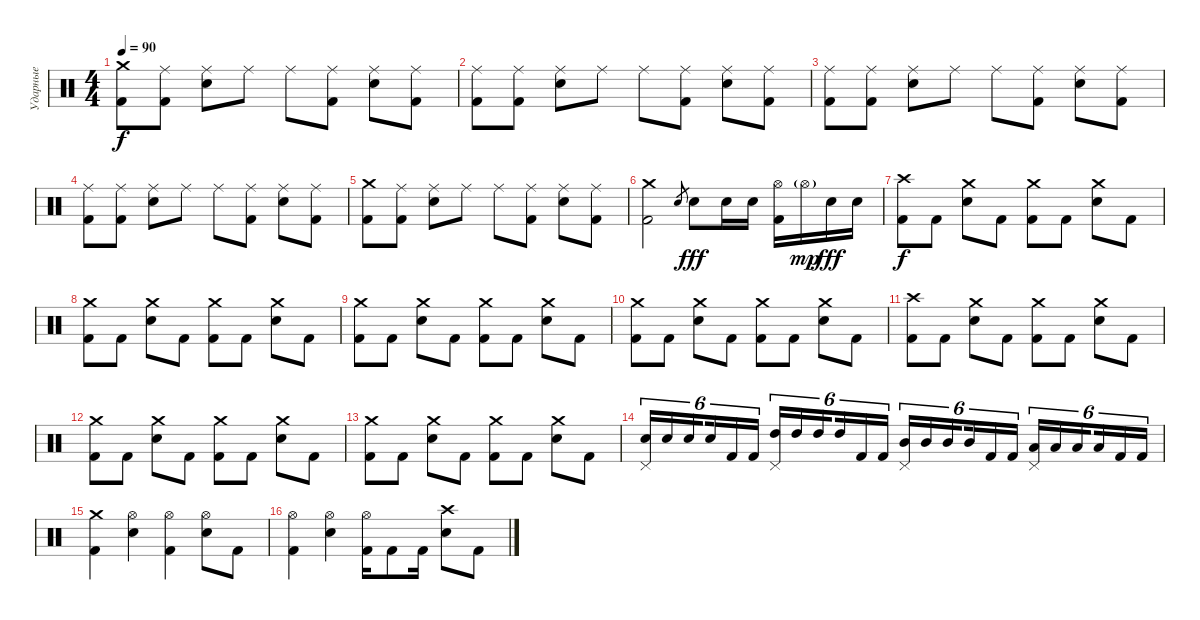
\track ("Ударные" "Ударные") {instrument percussion}
\staff {score}
\articulation defaults
\ts (4 4)
\tempo 90
\clef neutral
\ks c
("Crash medium (hit)" "Kick (hit) 2").8{dy f} ("Ride (middle)" "Kick (hit) 2").8 ("Ride (middle)" "Electric Snare (hit)").8 "Ride (middle)".8 "Ride (middle)".8 ("Ride (middle)" "Kick (hit) 2").8 ("Ride (middle)" "Electric Snare (hit)").8 ("Ride (middle)" "Kick (hit) 2").8 |
("Ride (middle)" "Kick (hit) 2").8 ("Ride (middle)" "Kick (hit) 2").8 ("Ride (middle)" "Electric Snare (hit)").8 "Ride (middle)".8 "Ride (middle)".8 ("Ride (middle)" "Kick (hit) 2").8 ("Ride (middle)" "Electric Snare (hit)").8 ("Ride (middle)" "Kick (hit) 2").8 |
("Ride (middle)" "Kick (hit) 2").8 ("Ride (middle)" "Kick (hit) 2").8 ("Ride (middle)" "Electric Snare (hit)").8 "Ride (middle)".8 "Ride (middle)".8 ("Ride (middle)" "Kick (hit) 2").8 ("Ride (middle)" "Electric Snare (hit)").8 ("Ride (middle)" "Kick (hit) 2").8 |
("Ride (middle)" "Kick (hit) 2").8 ("Ride (middle)" "Kick (hit) 2").8 ("Ride (middle)" "Electric Snare (hit)").8 "Ride (middle)".8 "Ride (middle)".8 ("Ride (middle)" "Kick (hit) 2").8 ("Ride (middle)" "Electric Snare (hit)").8 ("Ride (middle)" "Kick (hit) 2").8 |
("Crash medium (hit)" "Kick (hit) 2").8 ("Ride (middle)" "Kick (hit) 2").8 ("Ride (middle)" "Electric Snare (hit)").8 "Ride (middle)".8 "Ride (middle)".8 ("Ride (middle)" "Kick (hit) 2").8 ("Ride (middle)" "Electric Snare (hit)").8 ("Ride (middle)" "Kick (hit) 2").8 |
("Crash medium (hit)" "Kick (hit) 2").2 "Electric Snare (hit)".8{gr} "Electric Snare (hit)".8{dy fff} "Electric Snare (hit)".16 "Electric Snare (hit)".16 ("Hi-Hat (open)" "Kick (hit) 2").16 "Hi-Hat (open)"{g}.16{dy mp} "Electric Snare (hit)".16{dy fff} "Electric Snare (hit)".16 |
("Crash high (hit)" "Kick (hit) 2").8{dy f} "Kick (hit) 2".8 ("Crash medium (hit)" "Electric Snare (hit)").8 "Kick (hit) 2".8 ("Crash medium (hit)" "Kick (hit) 2").8 "Kick (hit) 2".8 ("Crash medium (hit)" "Electric Snare (hit)").8 "Kick (hit) 2".8 |
("Crash medium (hit)" "Kick (hit) 2").8 "Kick (hit) 2".8 ("Crash medium (hit)" "Electric Snare (hit)").8 "Kick (hit) 2".8 ("Crash medium (hit)" "Kick (hit) 2").8 "Kick (hit) 2".8 ("Crash medium (hit)" "Electric Snare (hit)").8 "Kick (hit) 2".8 |
("Crash medium (hit)" "Kick (hit) 2").8 "Kick (hit) 2".8 ("Crash medium (hit)" "Electric Snare (hit)").8 "Kick (hit) 2".8 ("Crash medium (hit)" "Kick (hit) 2").8 "Kick (hit) 2".8 ("Crash medium (hit)" "Electric Snare (hit)").8 "Kick (hit) 2".8 |
("Crash medium (hit)" "Kick (hit) 2").8 "Kick (hit) 2".8 ("Crash medium (hit)" "Electric Snare (hit)").8 "Kick (hit) 2".8 ("Crash medium (hit)" "Kick (hit) 2").8 "Kick (hit) 2".8 ("Crash medium (hit)" "Electric Snare (hit)").8 "Kick (hit) 2".8 |
("Crash high (hit)" "Kick (hit) 2").8 "Kick (hit) 2".8 ("Crash medium (hit)" "Electric Snare (hit)").8 "Kick (hit) 2".8 ("Crash medium (hit)" "Kick (hit) 2").8 "Kick (hit) 2".8 ("Crash medium (hit)" "Electric Snare (hit)").8 "Kick (hit) 2".8 |
("Crash medium (hit)" "Kick (hit) 2").8 "Kick (hit) 2".8 ("Crash medium (hit)" "Electric Snare (hit)").8 "Kick (hit) 2".8 ("Crash medium (hit)" "Kick (hit) 2").8 "Kick (hit) 2".8 ("Crash medium (hit)" "Electric Snare (hit)").8 "Kick (hit) 2".8 |
("Crash medium (hit)" "Kick (hit) 2").8 "Kick (hit) 2".8 ("Crash medium (hit)" "Electric Snare (hit)").8 "Kick (hit) 2".8 ("Crash medium (hit)" "Kick (hit) 2").8 "Kick (hit) 2".8 ("Crash medium (hit)" "Electric Snare (hit)").8 "Kick (hit) 2".8 |
("Electric Snare (hit)" "Pedal Hi-Hat (hit)").16{tu (6 4)} "Electric Snare (hit)".16{tu (6 4)} "Electric Snare (hit)".16{tu (6 4) beam splitsecondary} "Electric Snare (hit)".16{tu (6 4)} "Kick (hit) 2".16{tu (6 4)} "Kick (hit) 2".16{tu (6 4)} ("High Tom (hit)" "Pedal Hi-Hat (hit)").16{tu (6 4)} "High Tom (hit)".16{tu (6 4)} "High Tom (hit)".16{tu (6 4) beam splitsecondary} "High Tom (hit)".16{tu (6 4)} "Kick (hit) 2".16{tu (6 4)} "Kick (hit) 2".16{tu (6 4)} ("Mid Tom (hit)" "Pedal Hi-Hat (hit)").16{tu (6 4)} "Mid Tom (hit)".16{tu (6 4)} "Mid Tom (hit)".16{tu (6 4) beam splitsecondary} "Mid Tom (hit)".16{tu (6 4)} "Kick (hit) 2".16{tu (6 4)} "Kick (hit) 2".16{tu (6 4)} ("Low Tom (hit)" "Pedal Hi-Hat (hit)").16{tu (6 4)} "Low Tom (hit)".16{tu (6 4)} "Low Tom (hit)".16{tu (6 4) beam splitsecondary} "Low Tom (hit)".16{tu (6 4)} "Kick (hit) 2".16{tu (6 4)} "Kick (hit) 2".16{tu (6 4)} |
("Crash medium (hit)" "Kick (hit) 2").4 ("Hi-Hat (open)" "Electric Snare (hit)").4 ("Hi-Hat (open)" "Kick (hit) 2").4 ("Hi-Hat (open)" "Electric Snare (hit)").8 "Kick (hit) 2".8 |
("Hi-Hat (open)" "Kick (hit) 2").4 ("Hi-Hat (open)" "Electric Snare (hit)").4 ("Hi-Hat (open)" "Kick (hit) 2").16 "Kick (hit) 2".8 "Kick (hit) 2".16 ("Crash high (hit)" "Electric Snare (hit)").8 "Kick (hit) 2".8
